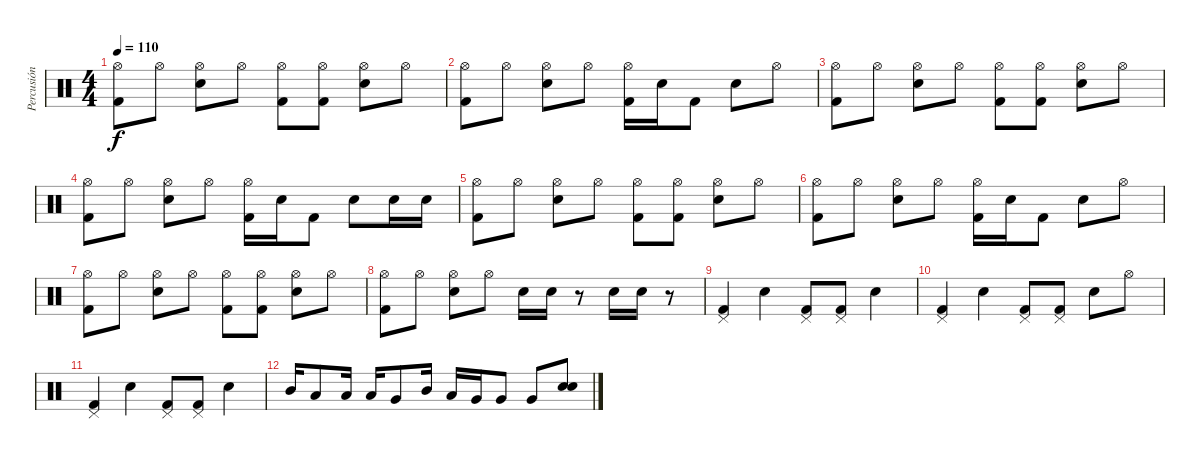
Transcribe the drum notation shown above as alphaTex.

\track ("Percusión" "Percusión") {instrument percussion}
\staff {score}
\articulation defaults
\ts (4 4)
\tempo 110
\clef neutral
\ks c
("Hi-Hat (open)" "Kick (hit) 2").8{dy f} "Hi-Hat (open)".8 ("Hi-Hat (open)" "Electric Snare (hit)").8 "Hi-Hat (open)".8 ("Hi-Hat (open)" "Kick (hit) 2").8 ("Hi-Hat (open)" "Kick (hit) 2").8 ("Hi-Hat (open)" "Electric Snare (hit)").8 "Hi-Hat (open)".8 |
("Hi-Hat (open)" "Kick (hit) 2").8 "Hi-Hat (open)".8 ("Hi-Hat (open)" "Electric Snare (hit)").8 "Hi-Hat (open)".8 ("Hi-Hat (open)" "Kick (hit) 2").16 "Electric Snare (hit)".16 "Kick (hit) 2".8 "Electric Snare (hit)".8 "Hi-Hat (open)".8 |
("Hi-Hat (open)" "Kick (hit) 2").8 "Hi-Hat (open)".8 ("Hi-Hat (open)" "Electric Snare (hit)").8 "Hi-Hat (open)".8 ("Hi-Hat (open)" "Kick (hit) 2").8 ("Hi-Hat (open)" "Kick (hit) 2").8 ("Hi-Hat (open)" "Electric Snare (hit)").8 "Hi-Hat (open)".8 |
("Hi-Hat (open)" "Kick (hit) 2").8 "Hi-Hat (open)".8 ("Hi-Hat (open)" "Electric Snare (hit)").8 "Hi-Hat (open)".8 ("Hi-Hat (open)" "Kick (hit) 2").16 "Electric Snare (hit)".16 "Kick (hit) 2".8 "Electric Snare (hit)".8 "Electric Snare (hit)".16 "Electric Snare (hit)".16 |
("Hi-Hat (open)" "Kick (hit) 2").8 "Hi-Hat (open)".8 ("Hi-Hat (open)" "Electric Snare (hit)").8 "Hi-Hat (open)".8 ("Hi-Hat (open)" "Kick (hit) 2").8 ("Hi-Hat (open)" "Kick (hit) 2").8 ("Hi-Hat (open)" "Electric Snare (hit)").8 "Hi-Hat (open)".8 |
("Hi-Hat (open)" "Kick (hit) 2").8 "Hi-Hat (open)".8 ("Hi-Hat (open)" "Electric Snare (hit)").8 "Hi-Hat (open)".8 ("Hi-Hat (open)" "Kick (hit) 2").16 "Electric Snare (hit)".16 "Kick (hit) 2".8 "Electric Snare (hit)".8 "Hi-Hat (open)".8 |
("Hi-Hat (open)" "Kick (hit) 2").8 "Hi-Hat (open)".8 ("Hi-Hat (open)" "Electric Snare (hit)").8 "Hi-Hat (open)".8 ("Hi-Hat (open)" "Kick (hit) 2").8 ("Hi-Hat (open)" "Kick (hit) 2").8 ("Hi-Hat (open)" "Electric Snare (hit)").8 "Hi-Hat (open)".8 |
("Hi-Hat (open)" "Kick (hit) 2").8 "Hi-Hat (open)".8 ("Hi-Hat (open)" "Electric Snare (hit)").8 "Hi-Hat (open)".8 "Electric Snare (hit)".16 "Electric Snare (hit)".16 r.8 "Electric Snare (hit)".16 "Electric Snare (hit)".16 r.8 |
("Pedal Hi-Hat (hit)" "Kick (hit) 2").4 "Electric Snare (hit)".4 ("Pedal Hi-Hat (hit)" "Kick (hit) 2").8 ("Pedal Hi-Hat (hit)" "Kick (hit) 2").8 "Electric Snare (hit)".4 |
("Pedal Hi-Hat (hit)" "Kick (hit) 2").4 "Electric Snare (hit)".4 ("Pedal Hi-Hat (hit)" "Kick (hit) 2").8 ("Pedal Hi-Hat (hit)" "Kick (hit) 2").8 "Electric Snare (hit)".8 "Hi-Hat (open)".8 |
("Pedal Hi-Hat (hit)" "Kick (hit) 2").4 "Electric Snare (hit)".4 ("Pedal Hi-Hat (hit)" "Kick (hit) 2").8 ("Pedal Hi-Hat (hit)" "Kick (hit) 2").8 "Electric Snare (hit)".4 |
"Mid Tom (hit)".16 "Low Tom (hit)".8 "Low Tom (hit)".16 "Low Tom (hit)".16 "Very Low Tom (hit)".8 "Mid Tom (hit)".16 "Low Tom (hit)".16 "Very Low Tom (hit)".16 "Very Low Tom (hit)".8 "Very Low Tom (hit)".8 ("Electric Snare (hit)" "Electric Snare (hit)").8{bd 120}
